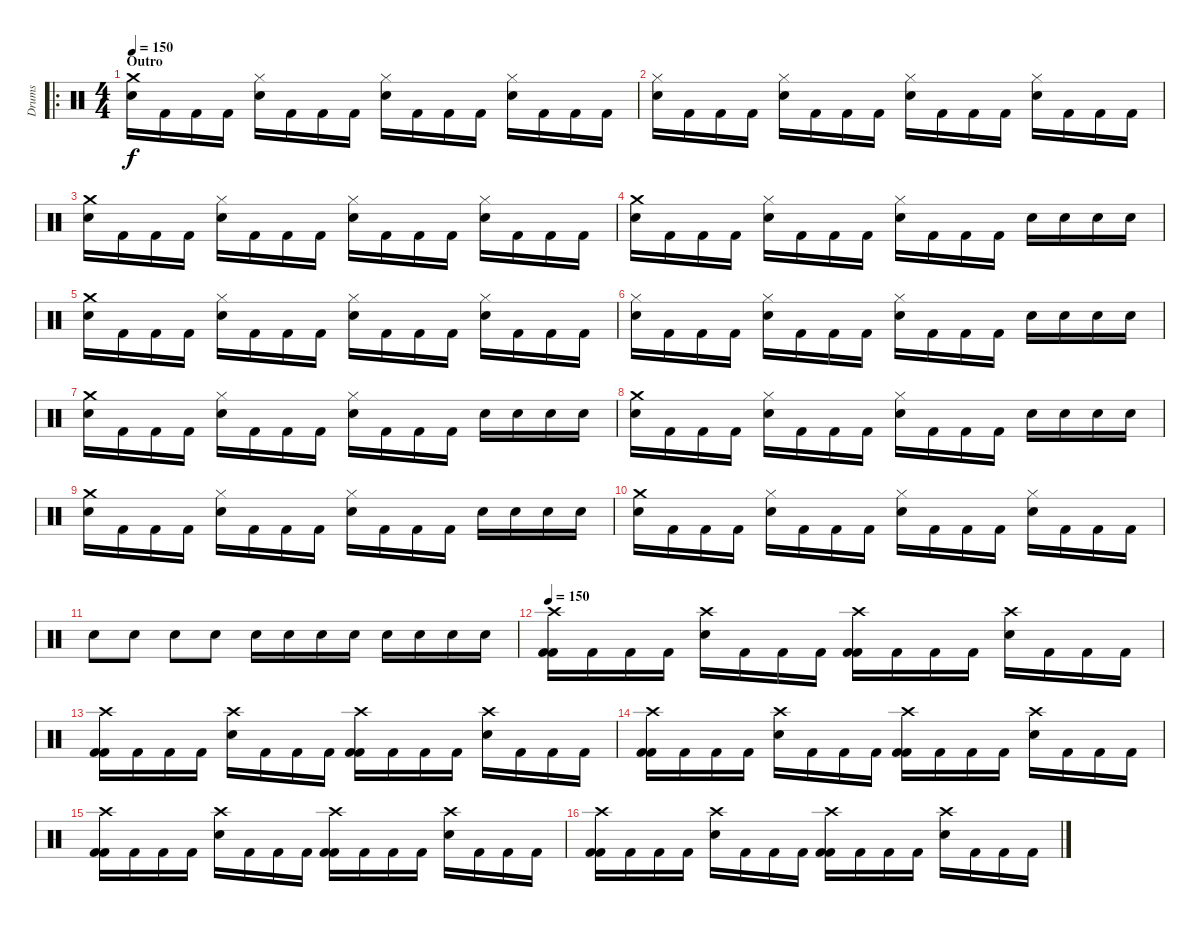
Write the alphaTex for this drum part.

\track ("Drums" "Drums") {instrument percussion}
\staff {score}
\articulation defaults
\ro
\ts (4 4)
\section ("" "Outro")
\tempo 150
\clef neutral
\ks c
("Crash medium (hit)" "Electric Snare (hit)").16{dy f} "Kick (hit) 2".16 "Kick (hit) 2".16 "Kick (hit) 2".16 ("Hi-Hat (closed)" "Electric Snare (hit)").16 "Kick (hit) 2".16 "Kick (hit) 2".16 "Kick (hit) 2".16 ("Hi-Hat (closed)" "Electric Snare (hit)").16 "Kick (hit) 2".16 "Kick (hit) 2".16 "Kick (hit) 2".16 ("Hi-Hat (closed)" "Electric Snare (hit)").16 "Kick (hit) 2".16 "Kick (hit) 2".16 "Kick (hit) 2".16 |
("Hi-Hat (closed)" "Electric Snare (hit)").16 "Kick (hit) 2".16 "Kick (hit) 2".16 "Kick (hit) 2".16 ("Hi-Hat (closed)" "Electric Snare (hit)").16 "Kick (hit) 2".16 "Kick (hit) 2".16 "Kick (hit) 2".16 ("Hi-Hat (closed)" "Electric Snare (hit)").16 "Kick (hit) 2".16 "Kick (hit) 2".16 "Kick (hit) 2".16 ("Hi-Hat (closed)" "Electric Snare (hit)").16 "Kick (hit) 2".16 "Kick (hit) 2".16 "Kick (hit) 2".16 |
("Crash medium (hit)" "Electric Snare (hit)").16 "Kick (hit) 2".16 "Kick (hit) 2".16 "Kick (hit) 2".16 ("Hi-Hat (closed)" "Electric Snare (hit)").16 "Kick (hit) 2".16 "Kick (hit) 2".16 "Kick (hit) 2".16 ("Hi-Hat (closed)" "Electric Snare (hit)").16 "Kick (hit) 2".16 "Kick (hit) 2".16 "Kick (hit) 2".16 ("Hi-Hat (closed)" "Electric Snare (hit)").16 "Kick (hit) 2".16 "Kick (hit) 2".16 "Kick (hit) 2".16 |
("Crash medium (hit)" "Electric Snare (hit)").16 "Kick (hit) 2".16 "Kick (hit) 2".16 "Kick (hit) 2".16 ("Hi-Hat (closed)" "Electric Snare (hit)").16 "Kick (hit) 2".16 "Kick (hit) 2".16 "Kick (hit) 2".16 ("Hi-Hat (closed)" "Electric Snare (hit)").16 "Kick (hit) 2".16 "Kick (hit) 2".16 "Kick (hit) 2".16 "Electric Snare (hit)".16 "Electric Snare (hit)".16 "Electric Snare (hit)".16 "Electric Snare (hit)".16 |
("Crash medium (hit)" "Electric Snare (hit)").16 "Kick (hit) 2".16 "Kick (hit) 2".16 "Kick (hit) 2".16 ("Hi-Hat (closed)" "Electric Snare (hit)").16 "Kick (hit) 2".16 "Kick (hit) 2".16 "Kick (hit) 2".16 ("Hi-Hat (closed)" "Electric Snare (hit)").16 "Kick (hit) 2".16 "Kick (hit) 2".16 "Kick (hit) 2".16 ("Hi-Hat (closed)" "Electric Snare (hit)").16 "Kick (hit) 2".16 "Kick (hit) 2".16 "Kick (hit) 2".16 |
("Hi-Hat (closed)" "Electric Snare (hit)").16 "Kick (hit) 2".16 "Kick (hit) 2".16 "Kick (hit) 2".16 ("Hi-Hat (closed)" "Electric Snare (hit)").16 "Kick (hit) 2".16 "Kick (hit) 2".16 "Kick (hit) 2".16 ("Hi-Hat (closed)" "Electric Snare (hit)").16 "Kick (hit) 2".16 "Kick (hit) 2".16 "Kick (hit) 2".16 "Electric Snare (hit)".16 "Electric Snare (hit)".16 "Electric Snare (hit)".16 "Electric Snare (hit)".16 |
("Crash medium (hit)" "Electric Snare (hit)").16 "Kick (hit) 2".16 "Kick (hit) 2".16 "Kick (hit) 2".16 ("Hi-Hat (closed)" "Electric Snare (hit)").16 "Kick (hit) 2".16 "Kick (hit) 2".16 "Kick (hit) 2".16 ("Hi-Hat (closed)" "Electric Snare (hit)").16 "Kick (hit) 2".16 "Kick (hit) 2".16 "Kick (hit) 2".16 "Electric Snare (hit)".16 "Electric Snare (hit)".16 "Electric Snare (hit)".16 "Electric Snare (hit)".16 |
("Crash medium (hit)" "Electric Snare (hit)").16 "Kick (hit) 2".16 "Kick (hit) 2".16 "Kick (hit) 2".16 ("Hi-Hat (closed)" "Electric Snare (hit)").16 "Kick (hit) 2".16 "Kick (hit) 2".16 "Kick (hit) 2".16 ("Hi-Hat (closed)" "Electric Snare (hit)").16 "Kick (hit) 2".16 "Kick (hit) 2".16 "Kick (hit) 2".16 "Electric Snare (hit)".16 "Electric Snare (hit)".16 "Electric Snare (hit)".16 "Electric Snare (hit)".16 |
("Crash medium (hit)" "Electric Snare (hit)").16 "Kick (hit) 2".16 "Kick (hit) 2".16 "Kick (hit) 2".16 ("Hi-Hat (closed)" "Electric Snare (hit)").16 "Kick (hit) 2".16 "Kick (hit) 2".16 "Kick (hit) 2".16 ("Hi-Hat (closed)" "Electric Snare (hit)").16 "Kick (hit) 2".16 "Kick (hit) 2".16 "Kick (hit) 2".16 "Electric Snare (hit)".16 "Electric Snare (hit)".16 "Electric Snare (hit)".16 "Electric Snare (hit)".16 |
("Crash medium (hit)" "Electric Snare (hit)").16 "Kick (hit) 2".16 "Kick (hit) 2".16 "Kick (hit) 2".16 ("Hi-Hat (closed)" "Electric Snare (hit)").16 "Kick (hit) 2".16 "Kick (hit) 2".16 "Kick (hit) 2".16 ("Hi-Hat (closed)" "Electric Snare (hit)").16 "Kick (hit) 2".16 "Kick (hit) 2".16 "Kick (hit) 2".16 ("Hi-Hat (closed)" "Electric Snare (hit)").16 "Kick (hit) 2".16 "Kick (hit) 2".16 "Kick (hit) 2".16 |
"Electric Snare (hit)".8 "Electric Snare (hit)".8 "Electric Snare (hit)".8 "Electric Snare (hit)".8 "Electric Snare (hit)".16 "Electric Snare (hit)".16 "Electric Snare (hit)".16 "Electric Snare (hit)".16 "Electric Snare (hit)".16 "Electric Snare (hit)".16 "Electric Snare (hit)".16 "Electric Snare (hit)".16 |
\tempo 150
("Crash high (hit)" "Kick (hit) 2" "Kick (hit) 2").16 "Kick (hit) 2".16 "Kick (hit) 2".16 "Kick (hit) 2".16 ("Electric Snare (hit)" "Crash high (hit)").16 "Kick (hit) 2".16 "Kick (hit) 2".16 "Kick (hit) 2".16 ("Crash high (hit)" "Kick (hit) 2" "Kick (hit) 2").16 "Kick (hit) 2".16 "Kick (hit) 2".16 "Kick (hit) 2".16 ("Electric Snare (hit)" "Crash high (hit)").16 "Kick (hit) 2".16 "Kick (hit) 2".16 "Kick (hit) 2".16 |
("Crash high (hit)" "Kick (hit) 2" "Kick (hit) 2").16 "Kick (hit) 2".16 "Kick (hit) 2".16 "Kick (hit) 2".16 ("Electric Snare (hit)" "Crash high (hit)").16 "Kick (hit) 2".16 "Kick (hit) 2".16 "Kick (hit) 2".16 ("Crash high (hit)" "Kick (hit) 2" "Kick (hit) 2").16 "Kick (hit) 2".16 "Kick (hit) 2".16 "Kick (hit) 2".16 ("Electric Snare (hit)" "Crash high (hit)").16 "Kick (hit) 2".16 "Kick (hit) 2".16 "Kick (hit) 2".16 |
("Crash high (hit)" "Kick (hit) 2" "Kick (hit) 2").16 "Kick (hit) 2".16 "Kick (hit) 2".16 "Kick (hit) 2".16 ("Electric Snare (hit)" "Crash high (hit)").16 "Kick (hit) 2".16 "Kick (hit) 2".16 "Kick (hit) 2".16 ("Crash high (hit)" "Kick (hit) 2" "Kick (hit) 2").16 "Kick (hit) 2".16 "Kick (hit) 2".16 "Kick (hit) 2".16 ("Electric Snare (hit)" "Crash high (hit)").16 "Kick (hit) 2".16 "Kick (hit) 2".16 "Kick (hit) 2".16 |
("Crash high (hit)" "Kick (hit) 2" "Kick (hit) 2").16 "Kick (hit) 2".16 "Kick (hit) 2".16 "Kick (hit) 2".16 ("Electric Snare (hit)" "Crash high (hit)").16 "Kick (hit) 2".16 "Kick (hit) 2".16 "Kick (hit) 2".16 ("Crash high (hit)" "Kick (hit) 2" "Kick (hit) 2").16 "Kick (hit) 2".16 "Kick (hit) 2".16 "Kick (hit) 2".16 ("Electric Snare (hit)" "Crash high (hit)").16 "Kick (hit) 2".16 "Kick (hit) 2".16 "Kick (hit) 2".16 |
("Crash high (hit)" "Kick (hit) 2" "Kick (hit) 2").16 "Kick (hit) 2".16 "Kick (hit) 2".16 "Kick (hit) 2".16 ("Electric Snare (hit)" "Crash high (hit)").16 "Kick (hit) 2".16 "Kick (hit) 2".16 "Kick (hit) 2".16 ("Crash high (hit)" "Kick (hit) 2" "Kick (hit) 2").16 "Kick (hit) 2".16 "Kick (hit) 2".16 "Kick (hit) 2".16 ("Electric Snare (hit)" "Crash high (hit)").16 "Kick (hit) 2".16 "Kick (hit) 2".16 "Kick (hit) 2".16
